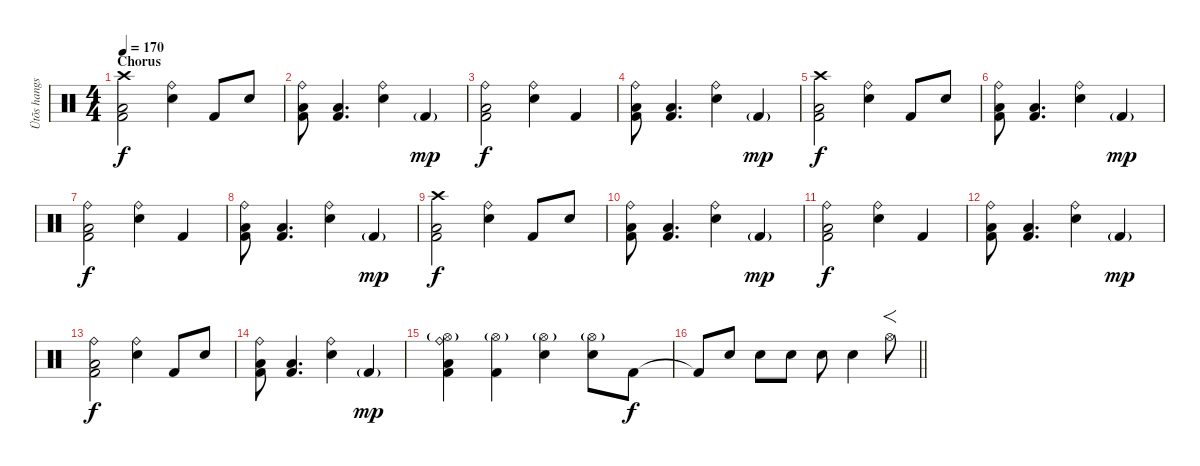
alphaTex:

\track ("Ütõs hangszer" "Ütõs hangs") {instrument percussion}
\staff {score}
\articulation defaults
\ts (4 4)
\section ("" "Chorus")
\tempo 170
\clef neutral
\ks c
("Crash high (hit)" "Kick (hit) 2" "Low Floor Tom (hit)").2{dy f} ("Ride (bell)" "Electric Snare (hit)").4 "Kick (hit) 2".8 "Electric Snare (hit)".8 |
("Ride (bell)" "Kick (hit) 2" "Low Floor Tom (hit)").8 ("Kick (hit) 2" "Low Floor Tom (hit)").4{d} ("Ride (bell)" "Electric Snare (hit)").4 "Kick (hit) 2"{g}.4{dy mp} |
("Ride (bell)" "Kick (hit) 2" "Low Floor Tom (hit)").2{dy f} ("Ride (bell)" "Electric Snare (hit)").4 "Kick (hit) 2".4 |
("Ride (bell)" "Kick (hit) 2" "Low Floor Tom (hit)").8 ("Kick (hit) 2" "Low Floor Tom (hit)").4{d} ("Ride (bell)" "Electric Snare (hit)").4 "Kick (hit) 2"{g}.4{dy mp} |
("Crash high (hit)" "Kick (hit) 2" "Low Floor Tom (hit)").2{dy f} ("Ride (bell)" "Electric Snare (hit)").4 "Kick (hit) 2".8 "Electric Snare (hit)".8 |
("Ride (bell)" "Kick (hit) 2" "Low Floor Tom (hit)").8 ("Kick (hit) 2" "Low Floor Tom (hit)").4{d} ("Ride (bell)" "Electric Snare (hit)").4 "Kick (hit) 2"{g}.4{dy mp} |
("Ride (bell)" "Kick (hit) 2" "Low Floor Tom (hit)").2{dy f} ("Ride (bell)" "Electric Snare (hit)").4 "Kick (hit) 2".4 |
("Ride (bell)" "Kick (hit) 2" "Low Floor Tom (hit)").8 ("Kick (hit) 2" "Low Floor Tom (hit)").4{d} ("Ride (bell)" "Electric Snare (hit)").4 "Kick (hit) 2"{g}.4{dy mp} |
("Crash high (hit)" "Kick (hit) 2" "Low Floor Tom (hit)").2{dy f} ("Ride (bell)" "Electric Snare (hit)").4 "Kick (hit) 2".8 "Electric Snare (hit)".8 |
("Ride (bell)" "Kick (hit) 2" "Low Floor Tom (hit)").8 ("Kick (hit) 2" "Low Floor Tom (hit)").4{d} ("Ride (bell)" "Electric Snare (hit)").4 "Kick (hit) 2"{g}.4{dy mp} |
("Ride (bell)" "Kick (hit) 2" "Low Floor Tom (hit)").2{dy f} ("Ride (bell)" "Electric Snare (hit)").4 "Kick (hit) 2".4 |
("Ride (bell)" "Kick (hit) 2" "Low Floor Tom (hit)").8 ("Kick (hit) 2" "Low Floor Tom (hit)").4{d} ("Ride (bell)" "Electric Snare (hit)").4 "Kick (hit) 2"{g}.4{dy mp} |
("Ride (bell)" "Kick (hit) 2" "Low Floor Tom (hit)").2{dy f} ("Ride (bell)" "Electric Snare (hit)").4 "Kick (hit) 2".8 "Electric Snare (hit)".8 |
("Ride (bell)" "Kick (hit) 2" "Low Floor Tom (hit)").8 ("Kick (hit) 2" "Low Floor Tom (hit)").4{d} ("Ride (bell)" "Electric Snare (hit)").4 "Kick (hit) 2"{g}.4{dy mp} |
("Hi-Hat (open)"{g} "Ride (bell)" "Kick (hit) 2" "Low Floor Tom (hit)").4 ("Hi-Hat (open)"{g} "Kick (hit) 2").4 ("Hi-Hat (open)"{g} "Electric Snare (hit)").4 ("Hi-Hat (open)"{g} "Electric Snare (hit)").8 "Kick (hit) 2".8{dy f} |
\barLineRight lightlight "Kick (hit) 2"{t}.8 "Electric Snare (hit)".8 "Electric Snare (hit)".8 "Electric Snare (hit)".8 "Electric Snare (hit)".8 "Electric Snare (hit)".4 "Hi-Hat (open)".8{f}
